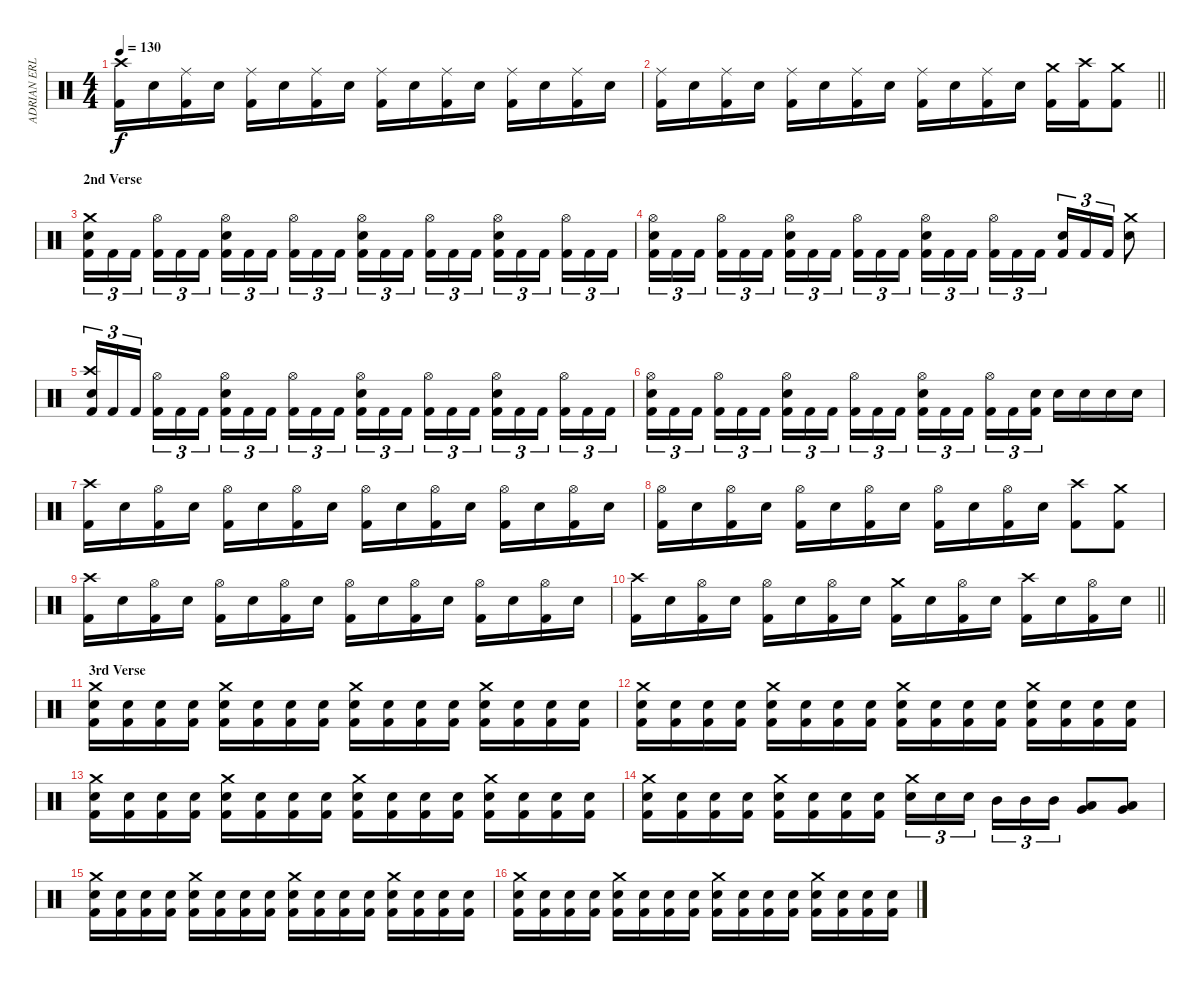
\track ("ADRIAN ERLANDSSON" "ADRIAN ERL") {instrument percussion}
\staff {score}
\articulation defaults
\ts (4 4)
\tempo 130
\clef neutral
\ks c
("Kick (hit) 2" "Crash high (hit)").16{dy f} "Electric Snare (hit)".16 ("Kick (hit) 2" "Ride (middle)").16 "Electric Snare (hit)".16 ("Kick (hit) 2" "Ride (middle)").16 "Electric Snare (hit)".16 ("Kick (hit) 2" "Ride (middle)").16 "Electric Snare (hit)".16 ("Kick (hit) 2" "Ride (middle)").16 "Electric Snare (hit)".16 ("Kick (hit) 2" "Ride (middle)").16 "Electric Snare (hit)".16 ("Kick (hit) 2" "Ride (middle)").16 "Electric Snare (hit)".16 ("Kick (hit) 2" "Ride (middle)").16 "Electric Snare (hit)".16 |
\barLineRight lightlight
("Kick (hit) 2" "Ride (middle)").16 "Electric Snare (hit)".16 ("Kick (hit) 2" "Ride (middle)").16 "Electric Snare (hit)".16 ("Kick (hit) 2" "Ride (middle)").16 "Electric Snare (hit)".16 ("Kick (hit) 2" "Ride (middle)").16 "Electric Snare (hit)".16 ("Kick (hit) 2" "Ride (middle)").16 "Electric Snare (hit)".16 ("Kick (hit) 2" "Ride (middle)").16 "Electric Snare (hit)".16 ("Kick (hit) 2" "Crash medium (hit)").16 ("Kick (hit) 2" "Crash high (hit)").16 ("Kick (hit) 2" "Crash medium (hit)").8 |
\section ("" "2nd Verse")
("Kick (hit) 2" "Electric Snare (hit)" "Crash medium (hit)").16{tu (3 2)} "Kick (hit) 2".16{tu (3 2)} "Kick (hit) 2".16{tu (3 2) beam splitsecondary} ("Kick (hit) 2" "Hi-Hat (open)").16{tu (3 2)} "Kick (hit) 2".16{tu (3 2)} "Kick (hit) 2".16{tu (3 2)} ("Kick (hit) 2" "Electric Snare (hit)" "Hi-Hat (open)").16{tu (3 2)} "Kick (hit) 2".16{tu (3 2)} "Kick (hit) 2".16{tu (3 2) beam splitsecondary} ("Kick (hit) 2" "Hi-Hat (open)").16{tu (3 2)} "Kick (hit) 2".16{tu (3 2)} "Kick (hit) 2".16{tu (3 2)} ("Kick (hit) 2" "Electric Snare (hit)" "Hi-Hat (open)").16{tu (3 2)} "Kick (hit) 2".16{tu (3 2)} "Kick (hit) 2".16{tu (3 2) beam splitsecondary} ("Kick (hit) 2" "Hi-Hat (open)").16{tu (3 2)} "Kick (hit) 2".16{tu (3 2)} "Kick (hit) 2".16{tu (3 2)} ("Kick (hit) 2" "Electric Snare (hit)" "Hi-Hat (open)").16{tu (3 2)} "Kick (hit) 2".16{tu (3 2)} "Kick (hit) 2".16{tu (3 2) beam splitsecondary} ("Kick (hit) 2" "Hi-Hat (open)").16{tu (3 2)} "Kick (hit) 2".16{tu (3 2)} "Kick (hit) 2".16{tu (3 2)} |
("Kick (hit) 2" "Electric Snare (hit)" "Hi-Hat (open)").16{tu (3 2)} "Kick (hit) 2".16{tu (3 2)} "Kick (hit) 2".16{tu (3 2) beam splitsecondary} ("Kick (hit) 2" "Hi-Hat (open)").16{tu (3 2)} "Kick (hit) 2".16{tu (3 2)} "Kick (hit) 2".16{tu (3 2)} ("Kick (hit) 2" "Electric Snare (hit)" "Hi-Hat (open)").16{tu (3 2)} "Kick (hit) 2".16{tu (3 2)} "Kick (hit) 2".16{tu (3 2) beam splitsecondary} ("Kick (hit) 2" "Hi-Hat (open)").16{tu (3 2)} "Kick (hit) 2".16{tu (3 2)} "Kick (hit) 2".16{tu (3 2)} ("Kick (hit) 2" "Electric Snare (hit)" "Hi-Hat (open)").16{tu (3 2)} "Kick (hit) 2".16{tu (3 2)} "Kick (hit) 2".16{tu (3 2) beam splitsecondary} ("Kick (hit) 2" "Hi-Hat (open)").16{tu (3 2)} "Kick (hit) 2".16{tu (3 2)} "Kick (hit) 2".16{tu (3 2)} ("Kick (hit) 2" "Electric Snare (hit)").16{tu (3 2)} "Kick (hit) 2".16{tu (3 2)} "Kick (hit) 2".16{tu (3 2)} ("Electric Snare (hit)" "Crash medium (hit)").8 |
("Kick (hit) 2" "Electric Snare (hit)" "Crash high (hit)").16{tu (3 2)} "Kick (hit) 2".16{tu (3 2)} "Kick (hit) 2".16{tu (3 2) beam splitsecondary} ("Kick (hit) 2" "Hi-Hat (open)").16{tu (3 2)} "Kick (hit) 2".16{tu (3 2)} "Kick (hit) 2".16{tu (3 2)} ("Kick (hit) 2" "Electric Snare (hit)" "Hi-Hat (open)").16{tu (3 2)} "Kick (hit) 2".16{tu (3 2)} "Kick (hit) 2".16{tu (3 2) beam splitsecondary} ("Kick (hit) 2" "Hi-Hat (open)").16{tu (3 2)} "Kick (hit) 2".16{tu (3 2)} "Kick (hit) 2".16{tu (3 2)} ("Kick (hit) 2" "Electric Snare (hit)" "Hi-Hat (open)").16{tu (3 2)} "Kick (hit) 2".16{tu (3 2)} "Kick (hit) 2".16{tu (3 2) beam splitsecondary} ("Kick (hit) 2" "Hi-Hat (open)").16{tu (3 2)} "Kick (hit) 2".16{tu (3 2)} "Kick (hit) 2".16{tu (3 2)} ("Kick (hit) 2" "Electric Snare (hit)" "Hi-Hat (open)").16{tu (3 2)} "Kick (hit) 2".16{tu (3 2)} "Kick (hit) 2".16{tu (3 2) beam splitsecondary} ("Kick (hit) 2" "Hi-Hat (open)").16{tu (3 2)} "Kick (hit) 2".16{tu (3 2)} "Kick (hit) 2".16{tu (3 2)} |
("Kick (hit) 2" "Electric Snare (hit)" "Hi-Hat (open)").16{tu (3 2)} "Kick (hit) 2".16{tu (3 2)} "Kick (hit) 2".16{tu (3 2) beam splitsecondary} ("Kick (hit) 2" "Hi-Hat (open)").16{tu (3 2)} "Kick (hit) 2".16{tu (3 2)} "Kick (hit) 2".16{tu (3 2)} ("Kick (hit) 2" "Electric Snare (hit)" "Hi-Hat (open)").16{tu (3 2)} "Kick (hit) 2".16{tu (3 2)} "Kick (hit) 2".16{tu (3 2) beam splitsecondary} ("Kick (hit) 2" "Hi-Hat (open)").16{tu (3 2)} "Kick (hit) 2".16{tu (3 2)} "Kick (hit) 2".16{tu (3 2)} ("Kick (hit) 2" "Electric Snare (hit)" "Hi-Hat (open)").16{tu (3 2)} "Kick (hit) 2".16{tu (3 2)} "Kick (hit) 2".16{tu (3 2) beam splitsecondary} ("Kick (hit) 2" "Hi-Hat (open)").16{tu (3 2)} "Kick (hit) 2".16{tu (3 2)} ("Kick (hit) 2" "Electric Snare (hit)").16{tu (3 2)} "Electric Snare (hit)".16 "Electric Snare (hit)".16 "Electric Snare (hit)".16 "Electric Snare (hit)".16 |
("Kick (hit) 2" "Crash high (hit)").16 "Electric Snare (hit)".16 ("Kick (hit) 2" "Hi-Hat (open)").16 "Electric Snare (hit)".16 ("Kick (hit) 2" "Hi-Hat (open)").16 "Electric Snare (hit)".16 ("Kick (hit) 2" "Hi-Hat (open)").16 "Electric Snare (hit)".16 ("Kick (hit) 2" "Hi-Hat (open)").16 "Electric Snare (hit)".16 ("Kick (hit) 2" "Hi-Hat (open)").16 "Electric Snare (hit)".16 ("Kick (hit) 2" "Hi-Hat (open)").16 "Electric Snare (hit)".16 ("Kick (hit) 2" "Hi-Hat (open)").16 "Electric Snare (hit)".16 |
("Kick (hit) 2" "Hi-Hat (open)").16 "Electric Snare (hit)".16 ("Kick (hit) 2" "Hi-Hat (open)").16 "Electric Snare (hit)".16 ("Kick (hit) 2" "Hi-Hat (open)").16 "Electric Snare (hit)".16 ("Kick (hit) 2" "Hi-Hat (open)").16 "Electric Snare (hit)".16 ("Kick (hit) 2" "Hi-Hat (open)").16 "Electric Snare (hit)".16 ("Kick (hit) 2" "Hi-Hat (open)").16 "Electric Snare (hit)".16 ("Kick (hit) 2" "Crash high (hit)").8 ("Kick (hit) 2" "Crash medium (hit)").8 |
("Kick (hit) 2" "Crash high (hit)").16 "Electric Snare (hit)".16 ("Kick (hit) 2" "Hi-Hat (open)").16 "Electric Snare (hit)".16 ("Kick (hit) 2" "Hi-Hat (open)").16 "Electric Snare (hit)".16 ("Kick (hit) 2" "Hi-Hat (open)").16 "Electric Snare (hit)".16 ("Kick (hit) 2" "Hi-Hat (open)").16 "Electric Snare (hit)".16 ("Kick (hit) 2" "Hi-Hat (open)").16 "Electric Snare (hit)".16 ("Kick (hit) 2" "Hi-Hat (open)").16 "Electric Snare (hit)".16 ("Kick (hit) 2" "Hi-Hat (open)").16 "Electric Snare (hit)".16 |
\barLineRight lightlight
("Kick (hit) 2" "Crash high (hit)").16 "Electric Snare (hit)".16 ("Kick (hit) 2" "Hi-Hat (open)").16 "Electric Snare (hit)".16 ("Kick (hit) 2" "Hi-Hat (open)").16 "Electric Snare (hit)".16 ("Kick (hit) 2" "Hi-Hat (open)").16 "Electric Snare (hit)".16 ("Kick (hit) 2" "Crash medium (hit)").16 "Electric Snare (hit)".16 ("Kick (hit) 2" "Hi-Hat (open)").16 "Electric Snare (hit)".16 ("Kick (hit) 2" "Crash high (hit)").16 "Electric Snare (hit)".16 ("Kick (hit) 2" "Hi-Hat (open)").16 "Electric Snare (hit)".16 |
\section ("" "3rd Verse")
("Kick (hit) 2" "Electric Snare (hit)" "Crash medium (hit)").16 ("Kick (hit) 2" "Electric Snare (hit)").16 ("Kick (hit) 2" "Electric Snare (hit)").16 ("Kick (hit) 2" "Electric Snare (hit)").16 ("Kick (hit) 2" "Electric Snare (hit)" "Crash medium (hit)").16 ("Kick (hit) 2" "Electric Snare (hit)").16 ("Kick (hit) 2" "Electric Snare (hit)").16 ("Kick (hit) 2" "Electric Snare (hit)").16 ("Kick (hit) 2" "Electric Snare (hit)" "Crash medium (hit)").16 ("Kick (hit) 2" "Electric Snare (hit)").16 ("Kick (hit) 2" "Electric Snare (hit)").16 ("Kick (hit) 2" "Electric Snare (hit)").16 ("Kick (hit) 2" "Electric Snare (hit)" "Crash medium (hit)").16 ("Kick (hit) 2" "Electric Snare (hit)").16 ("Kick (hit) 2" "Electric Snare (hit)").16 ("Kick (hit) 2" "Electric Snare (hit)").16 |
("Kick (hit) 2" "Electric Snare (hit)" "Crash medium (hit)").16 ("Kick (hit) 2" "Electric Snare (hit)").16 ("Kick (hit) 2" "Electric Snare (hit)").16 ("Kick (hit) 2" "Electric Snare (hit)").16 ("Kick (hit) 2" "Electric Snare (hit)" "Crash medium (hit)").16 ("Kick (hit) 2" "Electric Snare (hit)").16 ("Kick (hit) 2" "Electric Snare (hit)").16 ("Kick (hit) 2" "Electric Snare (hit)").16 ("Kick (hit) 2" "Electric Snare (hit)" "Crash medium (hit)").16 ("Kick (hit) 2" "Electric Snare (hit)").16 ("Kick (hit) 2" "Electric Snare (hit)").16 ("Kick (hit) 2" "Electric Snare (hit)").16 ("Kick (hit) 2" "Electric Snare (hit)" "Crash medium (hit)").16 ("Kick (hit) 2" "Electric Snare (hit)").16 ("Kick (hit) 2" "Electric Snare (hit)").16 ("Kick (hit) 2" "Electric Snare (hit)").16 |
("Kick (hit) 2" "Electric Snare (hit)" "Crash medium (hit)").16 ("Kick (hit) 2" "Electric Snare (hit)").16 ("Kick (hit) 2" "Electric Snare (hit)").16 ("Kick (hit) 2" "Electric Snare (hit)").16 ("Kick (hit) 2" "Electric Snare (hit)" "Crash medium (hit)").16 ("Kick (hit) 2" "Electric Snare (hit)").16 ("Kick (hit) 2" "Electric Snare (hit)").16 ("Kick (hit) 2" "Electric Snare (hit)").16 ("Kick (hit) 2" "Electric Snare (hit)" "Crash medium (hit)").16 ("Kick (hit) 2" "Electric Snare (hit)").16 ("Kick (hit) 2" "Electric Snare (hit)").16 ("Kick (hit) 2" "Electric Snare (hit)").16 ("Kick (hit) 2" "Electric Snare (hit)" "Crash medium (hit)").16 ("Kick (hit) 2" "Electric Snare (hit)").16 ("Kick (hit) 2" "Electric Snare (hit)").16 ("Kick (hit) 2" "Electric Snare (hit)").16 |
("Kick (hit) 2" "Electric Snare (hit)" "Crash medium (hit)").16 ("Kick (hit) 2" "Electric Snare (hit)").16 ("Kick (hit) 2" "Electric Snare (hit)").16 ("Kick (hit) 2" "Electric Snare (hit)").16 ("Kick (hit) 2" "Electric Snare (hit)" "Crash medium (hit)").16 ("Kick (hit) 2" "Electric Snare (hit)").16 ("Kick (hit) 2" "Electric Snare (hit)").16 ("Kick (hit) 2" "Electric Snare (hit)").16 ("Electric Snare (hit)" "Crash medium (hit)").16{tu (3 2)} "Electric Snare (hit)".16{tu (3 2)} "Electric Snare (hit)".16{tu (3 2) beam splitsecondary} "Mid Tom (hit)".16{tu (3 2)} "Mid Tom (hit)".16{tu (3 2)} "Mid Tom (hit)".16{tu (3 2)} ("Low Tom (hit)" "Very Low Tom (hit)").8 ("Low Tom (hit)" "Very Low Tom (hit)").8 |
("Kick (hit) 2" "Electric Snare (hit)" "Crash medium (hit)").16 ("Kick (hit) 2" "Electric Snare (hit)").16 ("Kick (hit) 2" "Electric Snare (hit)").16 ("Kick (hit) 2" "Electric Snare (hit)").16 ("Kick (hit) 2" "Electric Snare (hit)" "Crash medium (hit)").16 ("Kick (hit) 2" "Electric Snare (hit)").16 ("Kick (hit) 2" "Electric Snare (hit)").16 ("Kick (hit) 2" "Electric Snare (hit)").16 ("Kick (hit) 2" "Electric Snare (hit)" "Crash medium (hit)").16 ("Kick (hit) 2" "Electric Snare (hit)").16 ("Kick (hit) 2" "Electric Snare (hit)").16 ("Kick (hit) 2" "Electric Snare (hit)").16 ("Kick (hit) 2" "Electric Snare (hit)" "Crash medium (hit)").16 ("Kick (hit) 2" "Electric Snare (hit)").16 ("Kick (hit) 2" "Electric Snare (hit)").16 ("Kick (hit) 2" "Electric Snare (hit)").16 |
("Kick (hit) 2" "Electric Snare (hit)" "Crash medium (hit)").16 ("Kick (hit) 2" "Electric Snare (hit)").16 ("Kick (hit) 2" "Electric Snare (hit)").16 ("Kick (hit) 2" "Electric Snare (hit)").16 ("Kick (hit) 2" "Electric Snare (hit)" "Crash medium (hit)").16 ("Kick (hit) 2" "Electric Snare (hit)").16 ("Kick (hit) 2" "Electric Snare (hit)").16 ("Kick (hit) 2" "Electric Snare (hit)").16 ("Kick (hit) 2" "Electric Snare (hit)" "Crash medium (hit)").16 ("Kick (hit) 2" "Electric Snare (hit)").16 ("Kick (hit) 2" "Electric Snare (hit)").16 ("Kick (hit) 2" "Electric Snare (hit)").16 ("Kick (hit) 2" "Electric Snare (hit)" "Crash medium (hit)").16 ("Kick (hit) 2" "Electric Snare (hit)").16 ("Kick (hit) 2" "Electric Snare (hit)").16 ("Kick (hit) 2" "Electric Snare (hit)").16
